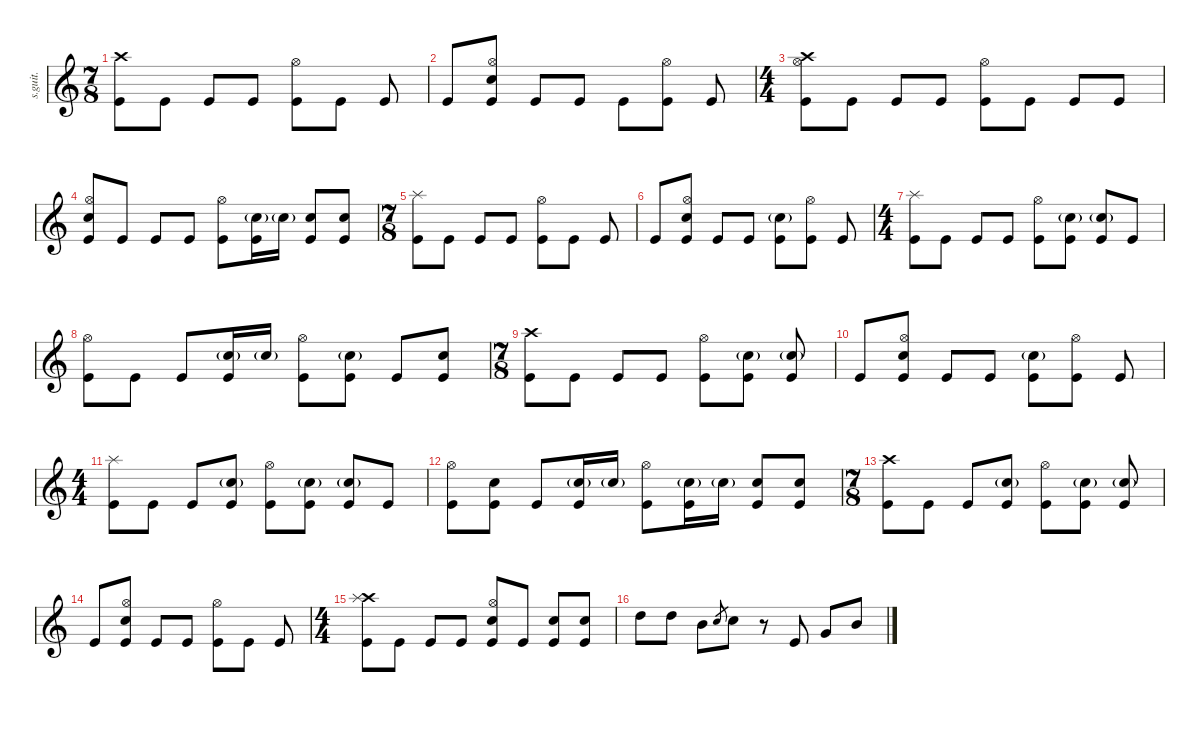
\defaultSystemsLayout 4
\hideDynamics
\bracketExtendMode nobrackets
\track ("Matt Halpern" "s.guit.") {instrument percussion}
\staff {score}
\articulation defaults
\ts (7 8)
\beaming (8 2 2 2 2)
\tempo (213 hide)
\clef g2
\ks c
("Crash high (hit)" "Kick (hit)").8{lyrics (0 "") lyrics (1 "") lyrics (2 "") lyrics (3 "") lyrics (4 "") dy mf} "Kick (hit)".8{lyrics (0 "") lyrics (1 "") lyrics (2 "") lyrics (3 "") lyrics (4 "")} "Kick (hit)".8{lyrics (0 "") lyrics (1 "") lyrics (2 "") lyrics (3 "") lyrics (4 "")} "Kick (hit)".8{lyrics (0 "") lyrics (1 "") lyrics (2 "") lyrics (3 "") lyrics (4 "")} ("Kick (hit)" "Hi-Hat (open)").8{lyrics (0 "") lyrics (1 "") lyrics (2 "") lyrics (3 "") lyrics (4 "")} "Kick (hit)".8{lyrics (0 "") lyrics (1 "") lyrics (2 "") lyrics (3 "") lyrics (4 "")} "Kick (hit)".8{lyrics (0 "") lyrics (1 "") lyrics (2 "") lyrics (3 "") lyrics (4 "")} |
"Kick (hit)".8{lyrics (0 "") lyrics (1 "") lyrics (2 "") lyrics (3 "") lyrics (4 "")} ("Hi-Hat (open)" "Kick (hit)" "Snare (hit) 2").8{lyrics (0 "") lyrics (1 "") lyrics (2 "") lyrics (3 "") lyrics (4 "")} "Kick (hit)".8{lyrics (0 "") lyrics (1 "") lyrics (2 "") lyrics (3 "") lyrics (4 "")} "Kick (hit)".8{lyrics (0 "") lyrics (1 "") lyrics (2 "") lyrics (3 "") lyrics (4 "")} "Kick (hit)".8{lyrics (0 "") lyrics (1 "") lyrics (2 "") lyrics (3 "") lyrics (4 "")} ("Hi-Hat (open)" "Kick (hit)").8{lyrics (0 "") lyrics (1 "") lyrics (2 "") lyrics (3 "") lyrics (4 "")} "Kick (hit)".8{lyrics (0 "") lyrics (1 "") lyrics (2 "") lyrics (3 "") lyrics (4 "")} |
\ts (4 4)
\beaming (8 2 2 2 2)
("Crash high (hit)" "Kick (hit)" "Hi-Hat (open)").8{lyrics (0 "") lyrics (1 "") lyrics (2 "") lyrics (3 "") lyrics (4 "")} "Kick (hit)".8{lyrics (0 "") lyrics (1 "") lyrics (2 "") lyrics (3 "") lyrics (4 "")} "Kick (hit)".8{lyrics (0 "") lyrics (1 "") lyrics (2 "") lyrics (3 "") lyrics (4 "")} "Kick (hit)".8{lyrics (0 "") lyrics (1 "") lyrics (2 "") lyrics (3 "") lyrics (4 "")} ("Kick (hit)" "Hi-Hat (open)").8{lyrics (0 "") lyrics (1 "") lyrics (2 "") lyrics (3 "") lyrics (4 "")} "Kick (hit)".8{lyrics (0 "") lyrics (1 "") lyrics (2 "") lyrics (3 "") lyrics (4 "")} "Kick (hit)".8{lyrics (0 "") lyrics (1 "") lyrics (2 "") lyrics (3 "") lyrics (4 "")} "Kick (hit)".8{lyrics (0 "") lyrics (1 "") lyrics (2 "") lyrics (3 "") lyrics (4 "")} |
("Hi-Hat (open)" "Snare (hit) 2" "Kick (hit)").8{lyrics (0 "") lyrics (1 "") lyrics (2 "") lyrics (3 "") lyrics (4 "")} "Kick (hit)".8{lyrics (0 "") lyrics (1 "") lyrics (2 "") lyrics (3 "") lyrics (4 "")} "Kick (hit)".8{lyrics (0 "") lyrics (1 "") lyrics (2 "") lyrics (3 "") lyrics (4 "")} "Kick (hit)".8{lyrics (0 "") lyrics (1 "") lyrics (2 "") lyrics (3 "") lyrics (4 "")} ("Hi-Hat (open)" "Kick (hit)").8{lyrics (0 "") lyrics (1 "") lyrics (2 "") lyrics (3 "") lyrics (4 "")} ("Snare (hit) 2"{g} "Kick (hit)").16{lyrics (0 "") lyrics (1 "") lyrics (2 "") lyrics (3 "") lyrics (4 "")} "Snare (hit) 2"{g}.16{lyrics (0 "") lyrics (1 "") lyrics (2 "") lyrics (3 "") lyrics (4 "")} ("Snare (hit) 2" "Kick (hit)").8{lyrics (0 "") lyrics (1 "") lyrics (2 "") lyrics (3 "") lyrics (4 "")} ("Snare (hit) 2" "Kick (hit)").8{lyrics (0 "") lyrics (1 "") lyrics (2 "") lyrics (3 "") lyrics (4 "")} |
\ts (7 8)
\beaming (8 2 2 2 2)
("Splash (hit)" "Kick (hit)").8{lyrics (0 "") lyrics (1 "") lyrics (2 "") lyrics (3 "") lyrics (4 "")} "Kick (hit)".8{lyrics (0 "") lyrics (1 "") lyrics (2 "") lyrics (3 "") lyrics (4 "")} "Kick (hit)".8{lyrics (0 "") lyrics (1 "") lyrics (2 "") lyrics (3 "") lyrics (4 "")} "Kick (hit)".8{lyrics (0 "") lyrics (1 "") lyrics (2 "") lyrics (3 "") lyrics (4 "")} ("Hi-Hat (open)" "Kick (hit)").8{lyrics (0 "") lyrics (1 "") lyrics (2 "") lyrics (3 "") lyrics (4 "")} "Kick (hit)".8{lyrics (0 "") lyrics (1 "") lyrics (2 "") lyrics (3 "") lyrics (4 "")} "Kick (hit)".8{lyrics (0 "") lyrics (1 "") lyrics (2 "") lyrics (3 "") lyrics (4 "")} |
"Kick (hit)".8{lyrics (0 "") lyrics (1 "") lyrics (2 "") lyrics (3 "") lyrics (4 "")} ("Hi-Hat (open)" "Snare (hit) 2" "Kick (hit)").8{lyrics (0 "") lyrics (1 "") lyrics (2 "") lyrics (3 "") lyrics (4 "")} "Kick (hit)".8{lyrics (0 "") lyrics (1 "") lyrics (2 "") lyrics (3 "") lyrics (4 "")} "Kick (hit)".8{lyrics (0 "") lyrics (1 "") lyrics (2 "") lyrics (3 "") lyrics (4 "")} ("Snare (hit) 2"{g} "Kick (hit)").8{lyrics (0 "") lyrics (1 "") lyrics (2 "") lyrics (3 "") lyrics (4 "")} ("Hi-Hat (open)" "Kick (hit)").8{lyrics (0 "") lyrics (1 "") lyrics (2 "") lyrics (3 "") lyrics (4 "")} "Kick (hit)".8{lyrics (0 "") lyrics (1 "") lyrics (2 "") lyrics (3 "") lyrics (4 "")} |
\ts (4 4)
\beaming (8 2 2 2 2)
("Splash (hit)" "Kick (hit)").8{lyrics (0 "") lyrics (1 "") lyrics (2 "") lyrics (3 "") lyrics (4 "")} "Kick (hit)".8{lyrics (0 "") lyrics (1 "") lyrics (2 "") lyrics (3 "") lyrics (4 "")} "Kick (hit)".8{lyrics (0 "") lyrics (1 "") lyrics (2 "") lyrics (3 "") lyrics (4 "")} "Kick (hit)".8{lyrics (0 "") lyrics (1 "") lyrics (2 "") lyrics (3 "") lyrics (4 "")} ("Hi-Hat (open)" "Kick (hit)").8{lyrics (0 "") lyrics (1 "") lyrics (2 "") lyrics (3 "") lyrics (4 "")} ("Snare (hit) 2"{g} "Kick (hit)").8{lyrics (0 "") lyrics (1 "") lyrics (2 "") lyrics (3 "") lyrics (4 "")} ("Snare (hit) 2"{g} "Kick (hit)").8{lyrics (0 "") lyrics (1 "") lyrics (2 "") lyrics (3 "") lyrics (4 "")} "Kick (hit)".8{lyrics (0 "") lyrics (1 "") lyrics (2 "") lyrics (3 "") lyrics (4 "")} |
("Hi-Hat (open)" "Kick (hit)").8{lyrics (0 "") lyrics (1 "") lyrics (2 "") lyrics (3 "") lyrics (4 "")} "Kick (hit)".8{lyrics (0 "") lyrics (1 "") lyrics (2 "") lyrics (3 "") lyrics (4 "")} "Kick (hit)".8{lyrics (0 "") lyrics (1 "") lyrics (2 "") lyrics (3 "") lyrics (4 "")} ("Snare (hit) 2"{g} "Kick (hit)").16{lyrics (0 "") lyrics (1 "") lyrics (2 "") lyrics (3 "") lyrics (4 "")} "Snare (hit) 2"{g}.16{lyrics (0 "") lyrics (1 "") lyrics (2 "") lyrics (3 "") lyrics (4 "")} ("Hi-Hat (open)" "Kick (hit)").8{lyrics (0 "") lyrics (1 "") lyrics (2 "") lyrics (3 "") lyrics (4 "")} ("Snare (hit) 2"{g} "Kick (hit)").8{lyrics (0 "") lyrics (1 "") lyrics (2 "") lyrics (3 "") lyrics (4 "")} "Kick (hit)".8{lyrics (0 "") lyrics (1 "") lyrics (2 "") lyrics (3 "") lyrics (4 "")} ("Snare (hit) 2" "Kick (hit)").8{lyrics (0 "") lyrics (1 "") lyrics (2 "") lyrics (3 "") lyrics (4 "")} |
\ts (7 8)
\beaming (8 2 2 2 2)
("Crash high (hit)" "Kick (hit)").8{lyrics (0 "") lyrics (1 "") lyrics (2 "") lyrics (3 "") lyrics (4 "")} "Kick (hit)".8{lyrics (0 "") lyrics (1 "") lyrics (2 "") lyrics (3 "") lyrics (4 "")} "Kick (hit)".8{lyrics (0 "") lyrics (1 "") lyrics (2 "") lyrics (3 "") lyrics (4 "")} "Kick (hit)".8{lyrics (0 "") lyrics (1 "") lyrics (2 "") lyrics (3 "") lyrics (4 "")} ("Hi-Hat (open)" "Kick (hit)").8{lyrics (0 "") lyrics (1 "") lyrics (2 "") lyrics (3 "") lyrics (4 "")} ("Snare (hit) 2"{g} "Kick (hit)").8{lyrics (0 "") lyrics (1 "") lyrics (2 "") lyrics (3 "") lyrics (4 "")} ("Snare (hit) 2"{g} "Kick (hit)").8{lyrics (0 "") lyrics (1 "") lyrics (2 "") lyrics (3 "") lyrics (4 "")} |
"Kick (hit)".8{lyrics (0 "") lyrics (1 "") lyrics (2 "") lyrics (3 "") lyrics (4 "")} ("Hi-Hat (open)" "Snare (hit) 2" "Kick (hit)").8{lyrics (0 "") lyrics (1 "") lyrics (2 "") lyrics (3 "") lyrics (4 "")} "Kick (hit)".8{lyrics (0 "") lyrics (1 "") lyrics (2 "") lyrics (3 "") lyrics (4 "")} "Kick (hit)".8{lyrics (0 "") lyrics (1 "") lyrics (2 "") lyrics (3 "") lyrics (4 "")} ("Snare (hit) 2"{g} "Kick (hit)").8{lyrics (0 "") lyrics (1 "") lyrics (2 "") lyrics (3 "") lyrics (4 "")} ("Hi-Hat (open)" "Kick (hit)").8{lyrics (0 "") lyrics (1 "") lyrics (2 "") lyrics (3 "") lyrics (4 "")} "Kick (hit)".8{lyrics (0 "") lyrics (1 "") lyrics (2 "") lyrics (3 "") lyrics (4 "")} |
\ts (4 4)
\beaming (8 2 2 2 2)
("Splash (hit)" "Kick (hit)").8{lyrics (0 "") lyrics (1 "") lyrics (2 "") lyrics (3 "") lyrics (4 "")} "Kick (hit)".8{lyrics (0 "") lyrics (1 "") lyrics (2 "") lyrics (3 "") lyrics (4 "")} "Kick (hit)".8{lyrics (0 "") lyrics (1 "") lyrics (2 "") lyrics (3 "") lyrics (4 "")} ("Snare (hit) 2"{g} "Kick (hit)").8{lyrics (0 "") lyrics (1 "") lyrics (2 "") lyrics (3 "") lyrics (4 "")} ("Hi-Hat (open)" "Kick (hit)").8{lyrics (0 "") lyrics (1 "") lyrics (2 "") lyrics (3 "") lyrics (4 "")} ("Snare (hit) 2"{g} "Kick (hit)").8{lyrics (0 "") lyrics (1 "") lyrics (2 "") lyrics (3 "") lyrics (4 "")} ("Snare (hit) 2"{g} "Kick (hit)").8{lyrics (0 "") lyrics (1 "") lyrics (2 "") lyrics (3 "") lyrics (4 "")} "Kick (hit)".8{lyrics (0 "") lyrics (1 "") lyrics (2 "") lyrics (3 "") lyrics (4 "")} |
("Hi-Hat (open)" "Kick (hit)").8{lyrics (0 "") lyrics (1 "") lyrics (2 "") lyrics (3 "") lyrics (4 "")} ("Snare (hit) 2" "Kick (hit)").8{lyrics (0 "") lyrics (1 "") lyrics (2 "") lyrics (3 "") lyrics (4 "")} "Kick (hit)".8{lyrics (0 "") lyrics (1 "") lyrics (2 "") lyrics (3 "") lyrics (4 "")} ("Snare (hit) 2"{g} "Kick (hit)").16{lyrics (0 "") lyrics (1 "") lyrics (2 "") lyrics (3 "") lyrics (4 "")} "Snare (hit) 2"{g}.16{lyrics (0 "") lyrics (1 "") lyrics (2 "") lyrics (3 "") lyrics (4 "")} ("Hi-Hat (open)" "Kick (hit)").8{lyrics (0 "") lyrics (1 "") lyrics (2 "") lyrics (3 "") lyrics (4 "")} ("Snare (hit) 2"{g} "Kick (hit)").16{lyrics (0 "") lyrics (1 "") lyrics (2 "") lyrics (3 "") lyrics (4 "")} "Snare (hit) 2"{g}.16{lyrics (0 "") lyrics (1 "") lyrics (2 "") lyrics (3 "") lyrics (4 "")} ("Snare (hit) 2" "Kick (hit)").8{lyrics (0 "") lyrics (1 "") lyrics (2 "") lyrics (3 "") lyrics (4 "")} ("Snare (hit) 2" "Kick (hit)").8{lyrics (0 "") lyrics (1 "") lyrics (2 "") lyrics (3 "") lyrics (4 "")} |
\ts (7 8)
\beaming (8 2 2 2 2)
("Crash high (hit)" "Kick (hit)").8{lyrics (0 "") lyrics (1 "") lyrics (2 "") lyrics (3 "") lyrics (4 "")} "Kick (hit)".8{lyrics (0 "") lyrics (1 "") lyrics (2 "") lyrics (3 "") lyrics (4 "")} "Kick (hit)".8{lyrics (0 "") lyrics (1 "") lyrics (2 "") lyrics (3 "") lyrics (4 "")} ("Snare (hit) 2"{g} "Kick (hit)").8{lyrics (0 "") lyrics (1 "") lyrics (2 "") lyrics (3 "") lyrics (4 "")} ("Kick (hit)" "Hi-Hat (open)").8{lyrics (0 "") lyrics (1 "") lyrics (2 "") lyrics (3 "") lyrics (4 "")} ("Snare (hit) 2"{g} "Kick (hit)").8{lyrics (0 "") lyrics (1 "") lyrics (2 "") lyrics (3 "") lyrics (4 "")} ("Snare (hit) 2"{g} "Kick (hit)").8{lyrics (0 "") lyrics (1 "") lyrics (2 "") lyrics (3 "") lyrics (4 "")} |
"Kick (hit)".8{lyrics (0 "") lyrics (1 "") lyrics (2 "") lyrics (3 "") lyrics (4 "")} ("Hi-Hat (open)" "Snare (hit) 2" "Kick (hit)").8{lyrics (0 "") lyrics (1 "") lyrics (2 "") lyrics (3 "") lyrics (4 "")} "Kick (hit)".8{lyrics (0 "") lyrics (1 "") lyrics (2 "") lyrics (3 "") lyrics (4 "")} "Kick (hit)".8{lyrics (0 "") lyrics (1 "") lyrics (2 "") lyrics (3 "") lyrics (4 "")} ("Hi-Hat (open)" "Kick (hit)").8{lyrics (0 "") lyrics (1 "") lyrics (2 "") lyrics (3 "") lyrics (4 "")} "Kick (hit)".8{lyrics (0 "") lyrics (1 "") lyrics (2 "") lyrics (3 "") lyrics (4 "")} "Kick (hit)".8{lyrics (0 "") lyrics (1 "") lyrics (2 "") lyrics (3 "") lyrics (4 "")} |
\ts (4 4)
\beaming (8 2 2 2 2)
("Crash high (hit)" "Splash (hit)" "Kick (hit)").8{lyrics (0 "") lyrics (1 "") lyrics (2 "") lyrics (3 "") lyrics (4 "")} "Kick (hit)".8{lyrics (0 "") lyrics (1 "") lyrics (2 "") lyrics (3 "") lyrics (4 "")} "Kick (hit)".8{lyrics (0 "") lyrics (1 "") lyrics (2 "") lyrics (3 "") lyrics (4 "")} "Kick (hit)".8{lyrics (0 "") lyrics (1 "") lyrics (2 "") lyrics (3 "") lyrics (4 "")} ("Hi-Hat (open)" "Snare (hit) 2" "Kick (hit)").8{lyrics (0 "") lyrics (1 "") lyrics (2 "") lyrics (3 "") lyrics (4 "")} "Kick (hit)".8{lyrics (0 "") lyrics (1 "") lyrics (2 "") lyrics (3 "") lyrics (4 "")} ("Snare (hit) 2" "Kick (hit)").8{lyrics (0 "") lyrics (1 "") lyrics (2 "") lyrics (3 "") lyrics (4 "")} ("Snare (hit) 2" "Kick (hit)").8{lyrics (0 "") lyrics (1 "") lyrics (2 "") lyrics (3 "") lyrics (4 "")} |
"High Tom (hit)".8{lyrics (0 "") lyrics (1 "") lyrics (2 "") lyrics (3 "") lyrics (4 "")} "High Tom (hit)".8{lyrics (0 "") lyrics (1 "") lyrics (2 "") lyrics (3 "") lyrics (4 "")} "Mid Tom (hit)".8{lyrics (0 "") lyrics (1 "") lyrics (2 "") lyrics (3 "") lyrics (4 "")} "Snare (hit) 2".8{lyrics (0 "") lyrics (1 "") lyrics (2 "") lyrics (3 "") lyrics (4 "") gr} "Snare (hit) 2".8{lyrics (0 "") lyrics (1 "") lyrics (2 "") lyrics (3 "") lyrics (4 "")} r.8 "Kick (hit)".8{lyrics (0 "") lyrics (1 "") lyrics (2 "") lyrics (3 "") lyrics (4 "")} "Very Low Tom (hit)".8{lyrics (0 "") lyrics (1 "") lyrics (2 "") lyrics (3 "") lyrics (4 "")} "Mid Tom (hit)".8{lyrics (0 "") lyrics (1 "") lyrics (2 "") lyrics (3 "") lyrics (4 "")}
